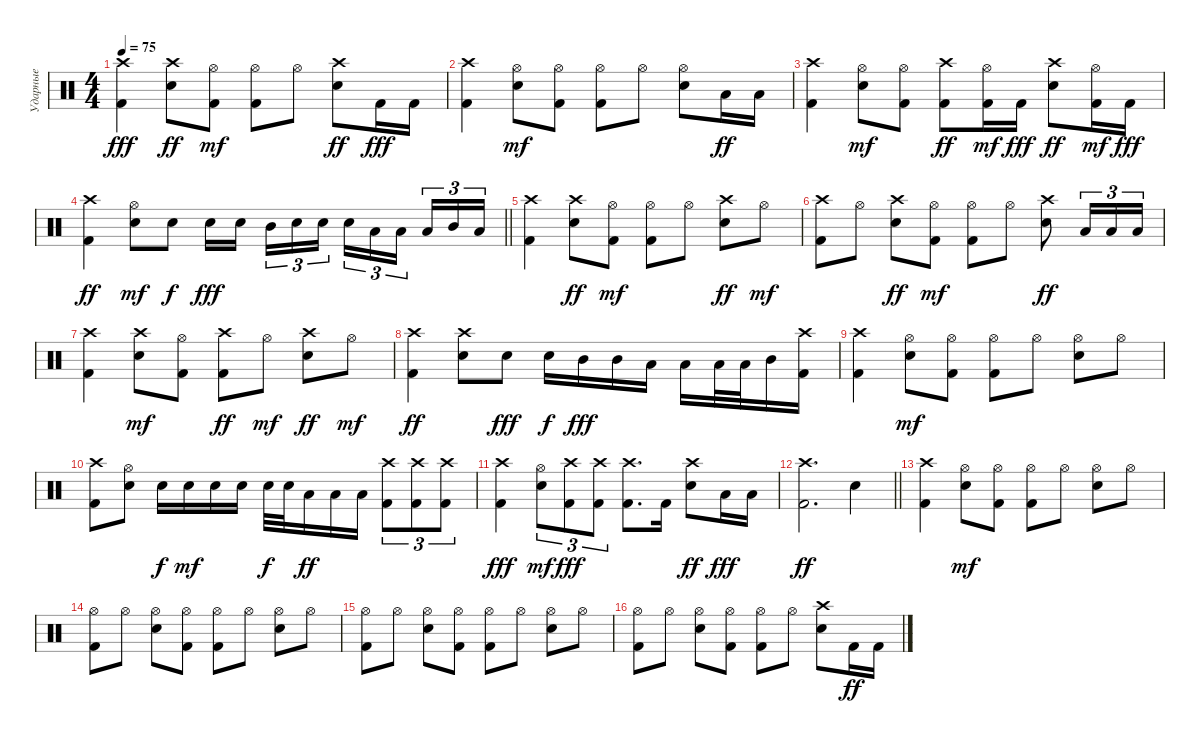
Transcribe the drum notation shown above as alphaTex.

\track ("Ударные" "Ударные") {instrument percussion}
\staff {score}
\articulation defaults
\ts (4 4)
\tempo 75
\clef neutral
\ks c
("Kick (hit) 2" "Crash high (hit)").4{dy fff} ("Snare (hit) 2" "Crash high (hit)").8{dy ff} ("Kick (hit) 2" "Hi-Hat (open)").8{dy mf} ("Kick (hit) 2" "Hi-Hat (open)").8 "Hi-Hat (open)".8 ("Snare (hit) 2" "Crash high (hit)").8{dy ff} "Kick (hit) 2".16{dy fff} "Kick (hit) 2".16 |
("Kick (hit) 2" "Crash high (hit)").4 ("Snare (hit) 2" "Hi-Hat (open)").8{dy mf} ("Kick (hit) 2" "Hi-Hat (open)").8 ("Kick (hit) 2" "Hi-Hat (open)").8 "Hi-Hat (open)".8 ("Snare (hit) 2" "Hi-Hat (open)").8 "Low Tom (hit)".16{dy ff} "Low Tom (hit)".16 |
("Kick (hit) 2" "Crash high (hit)").4 ("Snare (hit) 2" "Hi-Hat (open)").8{dy mf} ("Kick (hit) 2" "Hi-Hat (open)").8 ("Kick (hit) 2" "Crash high (hit)").8{dy ff} ("Kick (hit) 2" "Hi-Hat (open)").16{dy mf} "Kick (hit) 2".16{dy fff} ("Snare (hit) 2" "Crash high (hit)").8{dy ff} ("Kick (hit) 2" "Hi-Hat (open)").16{dy mf} "Kick (hit) 2".16{dy fff} |
\barLineRight lightlight
("Kick (hit) 2" "Crash high (hit)").4{dy ff} ("Snare (hit) 2" "Hi-Hat (open)").8{dy mf} "Snare (hit) 2".8{dy f} "Snare (hit) 2".16{dy fff} "Electric Snare (hit)".16{beam splitsecondary} "Mid Tom (hit)".16{tu (3 2)} "Snare (hit) 2".16{tu (3 2)} "Snare (hit) 2".16{tu (3 2)} "Snare (hit) 2".16{tu (3 2)} "Low Tom (hit)".16{tu (3 2)} "Low Tom (hit)".16{tu (3 2) beam splitsecondary} "Low Tom (hit)".16{tu (3 2)} "Mid Tom (hit)".16{tu (3 2)} "Low Tom (hit)".16{tu (3 2)} |
("Kick (hit) 2" "Crash high (hit)").4 ("Snare (hit) 2" "Crash high (hit)").8{dy ff} ("Kick (hit) 2" "Hi-Hat (open)").8{dy mf} ("Kick (hit) 2" "Hi-Hat (open)").8 "Hi-Hat (open)".8 ("Snare (hit) 2" "Crash high (hit)").8{dy ff} "Hi-Hat (open)".8{dy mf} |
("Kick (hit) 2" "Crash high (hit)").8 "Hi-Hat (open)".8 ("Snare (hit) 2" "Crash high (hit)").8{dy ff} ("Kick (hit) 2" "Hi-Hat (open)").8{dy mf} ("Kick (hit) 2" "Hi-Hat (open)").8 "Hi-Hat (open)".8 ("Snare (hit) 2" "Crash high (hit)").8{dy ff} "Low Tom (hit)".16{tu (3 2)} "Low Tom (hit)".16{tu (3 2)} "Low Tom (hit)".16{tu (3 2)} |
("Kick (hit) 2" "Crash high (hit)").4 ("Snare (hit) 2" "Crash high (hit)").8{dy mf} ("Kick (hit) 2" "Hi-Hat (open)").8 ("Kick (hit) 2" "Crash high (hit)").8{dy ff} "Hi-Hat (open)".8{dy mf} ("Snare (hit) 2" "Crash high (hit)").8{dy ff} "Hi-Hat (open)".8{dy mf} |
("Kick (hit) 2" "Crash high (hit)").4{dy ff} ("Snare (hit) 2" "Crash high (hit)").8 "Snare (hit) 2".8{dy fff} "Snare (hit) 2".16{dy f} "Mid Tom (hit)".16{dy fff} "Mid Tom (hit)".16 "Low Tom (hit)".16 "Low Tom (hit)".16 "Low Tom (hit)".32 "Low Tom (hit)".32 "Mid Tom (hit)".16 ("Kick (hit) 2" "Crash high (hit)").16 |
("Kick (hit) 2" "Crash high (hit)").4 ("Snare (hit) 2" "Hi-Hat (open)").8{dy mf} ("Kick (hit) 2" "Hi-Hat (open)").8 ("Kick (hit) 2" "Hi-Hat (open)").8 "Hi-Hat (open)".8 ("Snare (hit) 2" "Hi-Hat (open)").8 "Hi-Hat (open)".8 |
("Kick (hit) 2" "Crash high (hit)").8 ("Snare (hit) 2" "Hi-Hat (open)").8 "Snare (hit) 2".16{dy f} "Snare (hit) 2".16{dy mf} "Snare (hit) 2".16 "Snare (hit) 2".16 "Snare (hit) 2".32{dy f} "Snare (hit) 2".32 "Low Tom (hit)".16{dy ff} "Low Tom (hit)".16 "Low Tom (hit)".16 ("Kick (hit) 2" "Crash high (hit)").8{tu (3 2)} ("Kick (hit) 2" "Crash high (hit)").8{tu (3 2)} ("Kick (hit) 2" "Crash high (hit)").8{tu (3 2)} |
("Kick (hit) 2" "Crash high (hit)").4{dy fff} ("Snare (hit) 2" "Hi-Hat (open)").8{tu (3 2) dy mf} ("Kick (hit) 2" "Crash high (hit)").8{tu (3 2) dy fff} ("Kick (hit) 2" "Crash high (hit)").8{tu (3 2)} ("Kick (hit) 2" "Crash high (hit)").8{d} "Kick (hit) 2".16 ("Snare (hit) 2" "Crash high (hit)").8{dy ff} "Low Tom (hit)".16{dy fff} "Low Tom (hit)".16 |
\barLineRight lightlight
("Kick (hit) 2" "Crash high (hit)").2{d dy ff} "Snare (hit) 2".4 |
("Kick (hit) 2" "Crash high (hit)").4 ("Snare (hit) 2" "Hi-Hat (open)").8{dy mf} ("Kick (hit) 2" "Hi-Hat (open)").8 ("Kick (hit) 2" "Hi-Hat (open)").8 "Hi-Hat (open)".8 ("Snare (hit) 2" "Hi-Hat (open)").8 "Hi-Hat (open)".8 |
("Kick (hit) 2" "Hi-Hat (open)").8 "Hi-Hat (open)".8 ("Snare (hit) 2" "Hi-Hat (open)").8 ("Kick (hit) 2" "Hi-Hat (open)").8 ("Kick (hit) 2" "Hi-Hat (open)").8 "Hi-Hat (open)".8 ("Snare (hit) 2" "Hi-Hat (open)").8 "Hi-Hat (open)".8 |
("Kick (hit) 2" "Hi-Hat (open)").8 "Hi-Hat (open)".8 ("Snare (hit) 2" "Hi-Hat (open)").8 ("Kick (hit) 2" "Hi-Hat (open)").8 ("Kick (hit) 2" "Hi-Hat (open)").8 "Hi-Hat (open)".8 ("Snare (hit) 2" "Hi-Hat (open)").8 "Hi-Hat (open)".8 |
("Kick (hit) 2" "Hi-Hat (open)").8 "Hi-Hat (open)".8 ("Snare (hit) 2" "Hi-Hat (open)").8 ("Kick (hit) 2" "Hi-Hat (open)").8 ("Kick (hit) 2" "Hi-Hat (open)").8 "Hi-Hat (open)".8 ("Snare (hit) 2" "Crash high (hit)").8 "Kick (hit) 2".16{dy ff} "Kick (hit) 2".16
